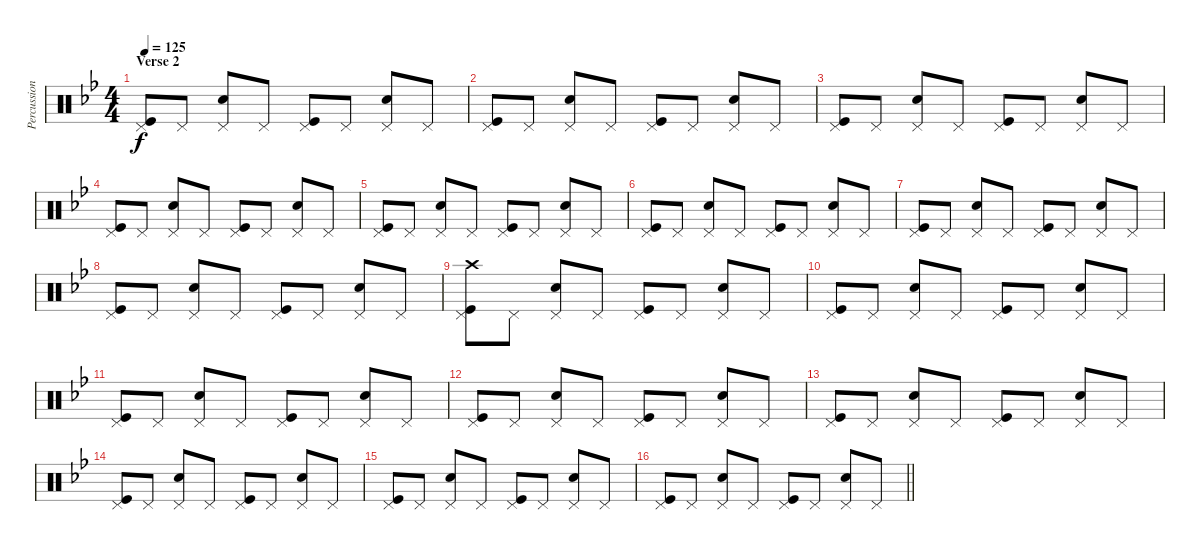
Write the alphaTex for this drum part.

\track ("Percussion" "Percussion") {instrument percussion}
\staff {score}
\articulation defaults
\ts (4 4)
\section ("" "Verse 2")
\tempo 125
\clef neutral
\ks bb
("Kick (hit)" "Pedal Hi-Hat (hit)").8{dy f} "Pedal Hi-Hat (hit)".8 ("Snare (hit) 2" "Pedal Hi-Hat (hit)").8 "Pedal Hi-Hat (hit)".8 ("Kick (hit)" "Pedal Hi-Hat (hit)").8 "Pedal Hi-Hat (hit)".8 ("Snare (hit) 2" "Pedal Hi-Hat (hit)").8 "Pedal Hi-Hat (hit)".8 |
("Kick (hit)" "Pedal Hi-Hat (hit)").8 "Pedal Hi-Hat (hit)".8 ("Snare (hit) 2" "Pedal Hi-Hat (hit)").8 "Pedal Hi-Hat (hit)".8 ("Kick (hit)" "Pedal Hi-Hat (hit)").8 "Pedal Hi-Hat (hit)".8 ("Snare (hit) 2" "Pedal Hi-Hat (hit)").8 "Pedal Hi-Hat (hit)".8 |
("Kick (hit)" "Pedal Hi-Hat (hit)").8 "Pedal Hi-Hat (hit)".8 ("Snare (hit) 2" "Pedal Hi-Hat (hit)").8 "Pedal Hi-Hat (hit)".8 ("Kick (hit)" "Pedal Hi-Hat (hit)").8 "Pedal Hi-Hat (hit)".8 ("Snare (hit) 2" "Pedal Hi-Hat (hit)").8 "Pedal Hi-Hat (hit)".8 |
("Kick (hit)" "Pedal Hi-Hat (hit)").8 "Pedal Hi-Hat (hit)".8 ("Snare (hit) 2" "Pedal Hi-Hat (hit)").8 "Pedal Hi-Hat (hit)".8 ("Kick (hit)" "Pedal Hi-Hat (hit)").8 "Pedal Hi-Hat (hit)".8 ("Snare (hit) 2" "Pedal Hi-Hat (hit)").8 "Pedal Hi-Hat (hit)".8 |
("Kick (hit)" "Pedal Hi-Hat (hit)").8 "Pedal Hi-Hat (hit)".8 ("Snare (hit) 2" "Pedal Hi-Hat (hit)").8 "Pedal Hi-Hat (hit)".8 ("Kick (hit)" "Pedal Hi-Hat (hit)").8 "Pedal Hi-Hat (hit)".8 ("Snare (hit) 2" "Pedal Hi-Hat (hit)").8 "Pedal Hi-Hat (hit)".8 |
("Kick (hit)" "Pedal Hi-Hat (hit)").8 "Pedal Hi-Hat (hit)".8 ("Snare (hit) 2" "Pedal Hi-Hat (hit)").8 "Pedal Hi-Hat (hit)".8 ("Kick (hit)" "Pedal Hi-Hat (hit)").8 "Pedal Hi-Hat (hit)".8 ("Snare (hit) 2" "Pedal Hi-Hat (hit)").8 "Pedal Hi-Hat (hit)".8 |
("Kick (hit)" "Pedal Hi-Hat (hit)").8 "Pedal Hi-Hat (hit)".8 ("Snare (hit) 2" "Pedal Hi-Hat (hit)").8 "Pedal Hi-Hat (hit)".8 ("Kick (hit)" "Pedal Hi-Hat (hit)").8 "Pedal Hi-Hat (hit)".8 ("Snare (hit) 2" "Pedal Hi-Hat (hit)").8 "Pedal Hi-Hat (hit)".8 |
("Kick (hit)" "Pedal Hi-Hat (hit)").8 "Pedal Hi-Hat (hit)".8 ("Snare (hit) 2" "Pedal Hi-Hat (hit)").8 "Pedal Hi-Hat (hit)".8 ("Kick (hit)" "Pedal Hi-Hat (hit)").8 "Pedal Hi-Hat (hit)".8 ("Snare (hit) 2" "Pedal Hi-Hat (hit)").8 "Pedal Hi-Hat (hit)".8 |
("Crash high (hit)" "Kick (hit)" "Pedal Hi-Hat (hit)").8 "Pedal Hi-Hat (hit)".8 ("Snare (hit) 2" "Pedal Hi-Hat (hit)").8 "Pedal Hi-Hat (hit)".8 ("Kick (hit)" "Pedal Hi-Hat (hit)").8 "Pedal Hi-Hat (hit)".8 ("Snare (hit) 2" "Pedal Hi-Hat (hit)").8 "Pedal Hi-Hat (hit)".8 |
("Kick (hit)" "Pedal Hi-Hat (hit)").8 "Pedal Hi-Hat (hit)".8 ("Snare (hit) 2" "Pedal Hi-Hat (hit)").8 "Pedal Hi-Hat (hit)".8 ("Kick (hit)" "Pedal Hi-Hat (hit)").8 "Pedal Hi-Hat (hit)".8 ("Snare (hit) 2" "Pedal Hi-Hat (hit)").8 "Pedal Hi-Hat (hit)".8 |
("Kick (hit)" "Pedal Hi-Hat (hit)").8 "Pedal Hi-Hat (hit)".8 ("Snare (hit) 2" "Pedal Hi-Hat (hit)").8 "Pedal Hi-Hat (hit)".8 ("Kick (hit)" "Pedal Hi-Hat (hit)").8 "Pedal Hi-Hat (hit)".8 ("Snare (hit) 2" "Pedal Hi-Hat (hit)").8 "Pedal Hi-Hat (hit)".8 |
("Kick (hit)" "Pedal Hi-Hat (hit)").8 "Pedal Hi-Hat (hit)".8 ("Snare (hit) 2" "Pedal Hi-Hat (hit)").8 "Pedal Hi-Hat (hit)".8 ("Kick (hit)" "Pedal Hi-Hat (hit)").8 "Pedal Hi-Hat (hit)".8 ("Snare (hit) 2" "Pedal Hi-Hat (hit)").8 "Pedal Hi-Hat (hit)".8 |
("Kick (hit)" "Pedal Hi-Hat (hit)").8 "Pedal Hi-Hat (hit)".8 ("Snare (hit) 2" "Pedal Hi-Hat (hit)").8 "Pedal Hi-Hat (hit)".8 ("Kick (hit)" "Pedal Hi-Hat (hit)").8 "Pedal Hi-Hat (hit)".8 ("Snare (hit) 2" "Pedal Hi-Hat (hit)").8 "Pedal Hi-Hat (hit)".8 |
("Kick (hit)" "Pedal Hi-Hat (hit)").8 "Pedal Hi-Hat (hit)".8 ("Snare (hit) 2" "Pedal Hi-Hat (hit)").8 "Pedal Hi-Hat (hit)".8 ("Kick (hit)" "Pedal Hi-Hat (hit)").8 "Pedal Hi-Hat (hit)".8 ("Snare (hit) 2" "Pedal Hi-Hat (hit)").8 "Pedal Hi-Hat (hit)".8 |
("Kick (hit)" "Pedal Hi-Hat (hit)").8 "Pedal Hi-Hat (hit)".8 ("Snare (hit) 2" "Pedal Hi-Hat (hit)").8 "Pedal Hi-Hat (hit)".8 ("Kick (hit)" "Pedal Hi-Hat (hit)").8 "Pedal Hi-Hat (hit)".8 ("Snare (hit) 2" "Pedal Hi-Hat (hit)").8 "Pedal Hi-Hat (hit)".8 |
\barLineRight lightlight
("Kick (hit)" "Pedal Hi-Hat (hit)").8 "Pedal Hi-Hat (hit)".8 ("Snare (hit) 2" "Pedal Hi-Hat (hit)").8 "Pedal Hi-Hat (hit)".8 ("Kick (hit)" "Pedal Hi-Hat (hit)").8 "Pedal Hi-Hat (hit)".8 ("Snare (hit) 2" "Pedal Hi-Hat (hit)").8 "Pedal Hi-Hat (hit)".8
